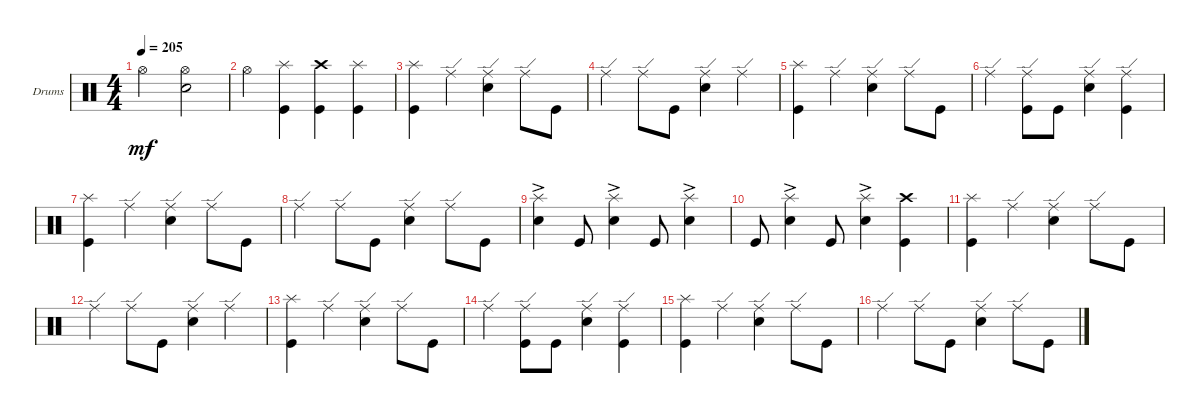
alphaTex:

\bracketExtendMode groupsimilarinstruments
\firstSystemTrackNameOrientation horizontal
\otherSystemsTrackNameOrientation horizontal
\track ("Drumkit" "Drums") {instrument percussion}
\staff {score}
\articulation defaults
\ts (4 4)
\tempo 205
\clef neutral
\ks c "Hi-Hat (open)".2{dy mf}
("Hi-Hat (open)" "Snare (hit) 2").2 |
"Hi-Hat (open)".4 ("Kick (hit)" "Splash (hit)").4 ("Kick (hit)" "Crash high (hit)").4 ("Kick (hit)" "Splash (hit)").4 |
("Splash (hit)" "Kick (hit)").4 "Ride (edge)".4 ("Snare (hit) 2" "Ride (edge)").4 "Ride (edge)".8 "Kick (hit)".8 |
"Ride (edge)".4 "Ride (edge)".8 "Kick (hit)".8 ("Ride (edge)" "Snare (hit) 2").4 "Ride (edge)".4 |
("Splash (hit)" "Kick (hit)").4 "Ride (edge)".4 ("Snare (hit) 2" "Ride (edge)").4 "Ride (edge)".8 "Kick (hit)".8 |
"Ride (edge)".4 ("Ride (edge)" "Kick (hit)").8 "Kick (hit)".8 ("Ride (edge)" "Snare (hit) 2").4 ("Ride (edge)" "Kick (hit)").4 |
("Splash (hit)" "Kick (hit)").4 "Ride (edge)".4 ("Snare (hit) 2" "Ride (edge)").4 "Ride (edge)".8 "Kick (hit)".8 |
"Ride (edge)".4 "Ride (edge)".8 "Kick (hit)".8 ("Ride (edge)" "Snare (hit) 2").4 "Ride (edge)".8 "Kick (hit)".8 |
("Snare (hit) 2"{ac} "Splash (hit)").4 "Kick (hit)".8 ("Snare (hit) 2"{ac} "Splash (hit)").4 "Kick (hit)".8 ("Snare (hit) 2"{ac} "Splash (hit)").4 |
"Kick (hit)".8 ("Snare (hit) 2"{ac} "Splash (hit)").4 "Kick (hit)".8 ("Snare (hit) 2"{ac} "Splash (hit)").4 ("Kick (hit)" "Crash high (hit)").4 |
("Splash (hit)" "Kick (hit)").4 "Ride (edge)".4 ("Snare (hit) 2" "Ride (edge)").4 "Ride (edge)".8 "Kick (hit)".8 |
"Ride (edge)".4 "Ride (edge)".8 "Kick (hit)".8 ("Ride (edge)" "Snare (hit) 2").4 "Ride (edge)".4 |
("Splash (hit)" "Kick (hit)").4 "Ride (edge)".4 ("Snare (hit) 2" "Ride (edge)").4 "Ride (edge)".8 "Kick (hit)".8 |
"Ride (edge)".4 ("Ride (edge)" "Kick (hit)").8 "Kick (hit)".8 ("Ride (edge)" "Snare (hit) 2").4 ("Ride (edge)" "Kick (hit)").4 |
("Splash (hit)" "Kick (hit)").4 "Ride (edge)".4 ("Snare (hit) 2" "Ride (edge)").4 "Ride (edge)".8 "Kick (hit)".8 |
"Ride (edge)".4 "Ride (edge)".8 "Kick (hit)".8 ("Ride (edge)" "Snare (hit) 2").4 "Ride (edge)".8 "Kick (hit)".8
